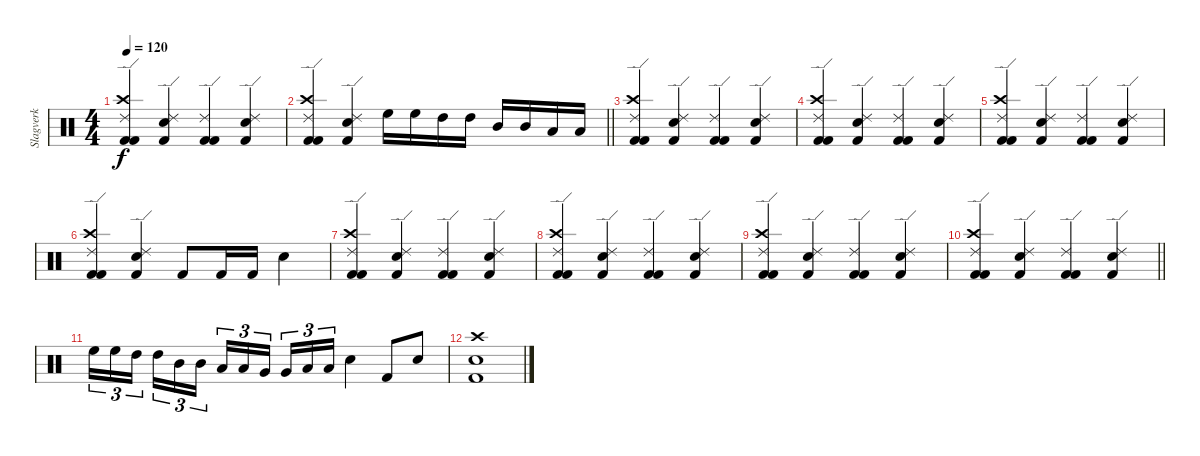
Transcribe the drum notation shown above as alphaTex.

\track ("Slagverk" "Slagverk") {instrument percussion}
\staff {score}
\articulation defaults
\ts (4 4)
\tempo 120
\clef neutral
\ks c
("Kick (hit) 2" "Kick (hit) 2" "Crash high (hit)" "Ride (edge) 2").4{dy f} ("Snare (hit) 2" "Kick (hit) 2" "Ride (edge) 2").4 ("Kick (hit) 2" "Kick (hit) 2" "Ride (edge) 2").4 ("Snare (hit) 2" "Kick (hit) 2" "Ride (edge) 2").4 |
\barLineRight lightlight
("Kick (hit) 2" "Kick (hit) 2" "Crash high (hit)" "Ride (edge) 2").4 ("Snare (hit) 2" "Kick (hit) 2" "Ride (edge) 2").4 "High Floor Tom (hit)".16 "High Floor Tom (hit)".16 "High Tom (hit)".16 "High Tom (hit)".16 "Mid Tom (hit)".16 "Mid Tom (hit)".16 "Low Tom (hit)".16 "Low Tom (hit)".16 |
("Kick (hit) 2" "Kick (hit) 2" "Crash high (hit)" "Ride (edge) 2").4 ("Snare (hit) 2" "Kick (hit) 2" "Ride (edge) 2").4 ("Kick (hit) 2" "Kick (hit) 2" "Ride (edge) 2").4 ("Snare (hit) 2" "Kick (hit) 2" "Ride (edge) 2").4 |
("Kick (hit) 2" "Kick (hit) 2" "Crash high (hit)" "Ride (edge) 2").4 ("Snare (hit) 2" "Kick (hit) 2" "Ride (edge) 2").4 ("Kick (hit) 2" "Kick (hit) 2" "Ride (edge) 2").4 ("Snare (hit) 2" "Kick (hit) 2" "Ride (edge) 2").4 |
("Kick (hit) 2" "Kick (hit) 2" "Crash high (hit)" "Ride (edge) 2").4 ("Snare (hit) 2" "Kick (hit) 2" "Ride (edge) 2").4 ("Kick (hit) 2" "Kick (hit) 2" "Ride (edge) 2").4 ("Snare (hit) 2" "Kick (hit) 2" "Ride (edge) 2").4 |
("Kick (hit) 2" "Kick (hit) 2" "Crash high (hit)" "Ride (edge) 2").4 ("Snare (hit) 2" "Kick (hit) 2" "Ride (edge) 2").4 "Kick (hit) 2".8 "Kick (hit) 2".16 "Kick (hit) 2".16 "Snare (hit) 2".4 |
("Kick (hit) 2" "Kick (hit) 2" "Crash high (hit)" "Ride (edge) 2").4 ("Snare (hit) 2" "Kick (hit) 2" "Ride (edge) 2").4 ("Kick (hit) 2" "Kick (hit) 2" "Ride (edge) 2").4 ("Snare (hit) 2" "Kick (hit) 2" "Ride (edge) 2").4 |
("Kick (hit) 2" "Kick (hit) 2" "Crash high (hit)" "Ride (edge) 2").4 ("Snare (hit) 2" "Kick (hit) 2" "Ride (edge) 2").4 ("Kick (hit) 2" "Kick (hit) 2" "Ride (edge) 2").4 ("Snare (hit) 2" "Kick (hit) 2" "Ride (edge) 2").4 |
("Kick (hit) 2" "Kick (hit) 2" "Crash high (hit)" "Ride (edge) 2").4 ("Snare (hit) 2" "Kick (hit) 2" "Ride (edge) 2").4 ("Kick (hit) 2" "Kick (hit) 2" "Ride (edge) 2").4 ("Snare (hit) 2" "Kick (hit) 2" "Ride (edge) 2").4 |
\barLineRight lightlight
("Kick (hit) 2" "Kick (hit) 2" "Crash high (hit)" "Ride (edge) 2").4 ("Snare (hit) 2" "Kick (hit) 2" "Ride (edge) 2").4 ("Kick (hit) 2" "Kick (hit) 2" "Ride (edge) 2").4 ("Snare (hit) 2" "Kick (hit) 2" "Ride (edge) 2").4 |
"High Floor Tom (hit)".16{tu (3 2)} "High Floor Tom (hit)".16{tu (3 2)} "High Tom (hit)".16{tu (3 2) beam splitsecondary} "High Tom (hit)".16{tu (3 2)} "Mid Tom (hit)".16{tu (3 2)} "Mid Tom (hit)".16{tu (3 2)} "Low Tom (hit)".16{tu (3 2)} "Low Tom (hit)".16{tu (3 2)} "Very Low Tom (hit)".16{tu (3 2) beam splitsecondary} "Very Low Tom (hit)".16{tu (3 2)} "Low Floor Tom (hit)".16{tu (3 2)} "Low Floor Tom (hit)".16{tu (3 2)} "Snare (hit) 2".4 "Kick (hit) 2".8 "Snare (hit) 2".8 |
("Crash high (hit)" "Kick (hit) 2" "Snare (hit) 2").1
